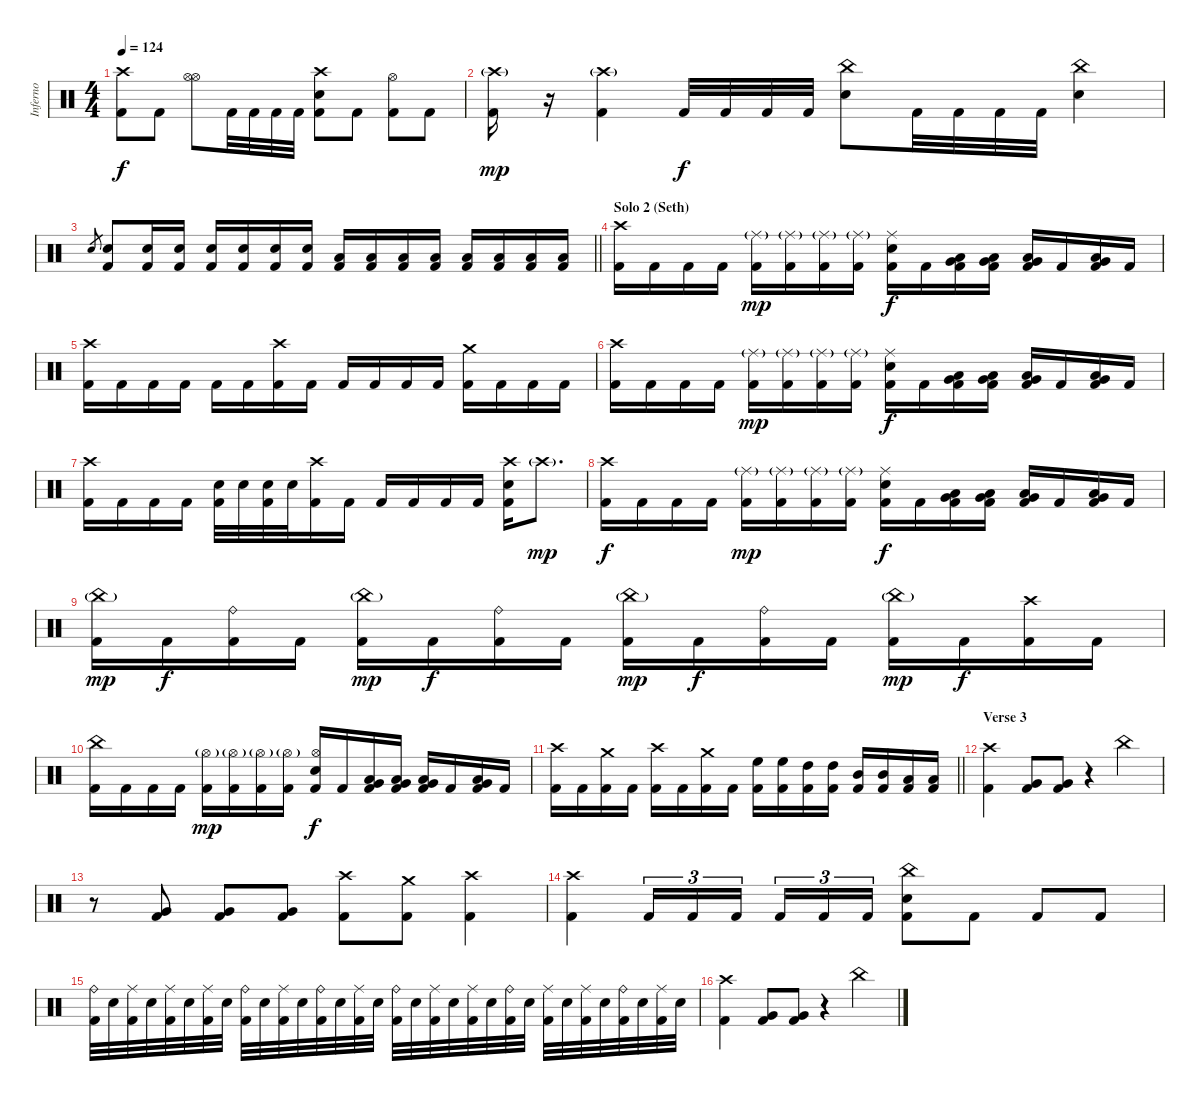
\track ("Inferno" "Inferno") {instrument percussion}
\staff {score}
\articulation defaults
\ts (4 4)
\tempo 124
\clef neutral
\ks c
("Crash high (hit)" "Kick (hit) 2").8{dy f} "Kick (hit) 2".8 ("Hi-Hat (open)" "Hi-Hat (open)").8 "Kick (hit) 2".32 "Kick (hit) 2".32 "Kick (hit) 2".32 "Kick (hit) 2".32 ("Crash high (hit)" "Electric Snare (hit)" "Kick (hit) 2").8 "Kick (hit) 2".8 ("Hi-Hat (open)" "Kick (hit) 2").8 "Kick (hit) 2".8 |
("Crash high (hit)"{g} "Kick (hit) 2").16{dy mp} r.16 ("Crash high (hit)"{g} "Kick (hit) 2").4 "Kick (hit) 2".32{dy f} "Kick (hit) 2".32 "Kick (hit) 2".32 "Kick (hit) 2".32 ("China (hit)" "Electric Snare (hit)").8 "Kick (hit) 2".32 "Kick (hit) 2".32 "Kick (hit) 2".32 "Kick (hit) 2".32 ("China (hit)" "Electric Snare (hit)").4 |
\barLineRight lightlight "Electric Snare (hit)".8{gr}
("Electric Snare (hit)" "Kick (hit) 2").8 ("Electric Snare (hit)" "Kick (hit) 2").16 ("Electric Snare (hit)" "Kick (hit) 2").16 ("Electric Snare (hit)" "Kick (hit) 2").16 ("Electric Snare (hit)" "Kick (hit) 2").16 ("Electric Snare (hit)" "Kick (hit) 2").16 ("Electric Snare (hit)" "Kick (hit) 2").16 ("Low Tom (hit)" "Kick (hit) 2").16 ("Low Tom (hit)" "Kick (hit) 2").16 ("Low Tom (hit)" "Kick (hit) 2").16 ("Low Tom (hit)" "Kick (hit) 2").16 ("Low Floor Tom (hit)" "Kick (hit) 2").16 ("Low Floor Tom (hit)" "Kick (hit) 2").16 ("Low Floor Tom (hit)" "Kick (hit) 2").16 ("Low Floor Tom (hit)" "Kick (hit) 2").16 |
\section ("" "Solo 2 (Seth)")
("Crash high (hit)" "Kick (hit) 2").16 "Kick (hit) 2".16 "Kick (hit) 2".16 "Kick (hit) 2".16 ("Ride (middle)"{g} "Kick (hit) 2").16{dy mp} ("Ride (middle)"{g} "Kick (hit) 2").16 ("Ride (middle)"{g} "Kick (hit) 2").16 ("Ride (middle)"{g} "Kick (hit) 2").16 ("Ride (middle)" "Electric Snare (hit)" "Kick (hit) 2").16{dy f} "Kick (hit) 2".16 ("Very Low Tom (hit)" "Low Tom (hit)" "Kick (hit) 2").16 ("Very Low Tom (hit)" "Low Tom (hit)" "Kick (hit) 2").16 ("Very Low Tom (hit)" "Low Tom (hit)" "Kick (hit) 2").16 "Kick (hit) 2".16 ("Very Low Tom (hit)" "Low Tom (hit)" "Kick (hit) 2").16 "Kick (hit) 2".16 |
("Crash high (hit)" "Kick (hit) 2").16 "Kick (hit) 2".16 "Kick (hit) 2".16 "Kick (hit) 2".16 "Kick (hit) 2".16 "Kick (hit) 2".16 ("Crash high (hit)" "Kick (hit) 2").16 "Kick (hit) 2".16 "Kick (hit) 2".16 "Kick (hit) 2".16 "Kick (hit) 2".16 "Kick (hit) 2".16 ("Crash medium (hit)" "Kick (hit) 2").16 "Kick (hit) 2".16 "Kick (hit) 2".16 "Kick (hit) 2".16 |
("Crash high (hit)" "Kick (hit) 2").16 "Kick (hit) 2".16 "Kick (hit) 2".16 "Kick (hit) 2".16 ("Ride (middle)"{g} "Kick (hit) 2").16{dy mp} ("Ride (middle)"{g} "Kick (hit) 2").16 ("Ride (middle)"{g} "Kick (hit) 2").16 ("Ride (middle)"{g} "Kick (hit) 2").16 ("Ride (middle)" "Electric Snare (hit)" "Kick (hit) 2").16{dy f} "Kick (hit) 2".16 ("Very Low Tom (hit)" "Low Tom (hit)" "Kick (hit) 2").16 ("Very Low Tom (hit)" "Low Tom (hit)" "Kick (hit) 2").16 ("Very Low Tom (hit)" "Low Tom (hit)" "Kick (hit) 2").16 "Kick (hit) 2".16 ("Very Low Tom (hit)" "Low Tom (hit)" "Kick (hit) 2").16 "Kick (hit) 2".16 |
("Crash high (hit)" "Kick (hit) 2").16 "Kick (hit) 2".16 "Kick (hit) 2".16 "Kick (hit) 2".16 ("Electric Snare (hit)" "Kick (hit) 2").32 "Electric Snare (hit)".32 ("Electric Snare (hit)" "Kick (hit) 2").32 "Electric Snare (hit)".32 ("Crash high (hit)" "Kick (hit) 2").16 "Kick (hit) 2".16 "Kick (hit) 2".16 "Kick (hit) 2".16 "Kick (hit) 2".16 "Kick (hit) 2".16 ("Crash high (hit)" "Electric Snare (hit)" "Kick (hit) 2").16 "Crash high (hit)"{g}.8{d dy mp} |
("Crash high (hit)" "Kick (hit) 2").16{dy f} "Kick (hit) 2".16 "Kick (hit) 2".16 "Kick (hit) 2".16 ("Ride (middle)"{g} "Kick (hit) 2").16{dy mp} ("Ride (middle)"{g} "Kick (hit) 2").16 ("Ride (middle)"{g} "Kick (hit) 2").16 ("Ride (middle)"{g} "Kick (hit) 2").16 ("Ride (middle)" "Electric Snare (hit)" "Kick (hit) 2").16{dy f} "Kick (hit) 2".16 ("Very Low Tom (hit)" "Low Tom (hit)" "Kick (hit) 2").16 ("Very Low Tom (hit)" "Low Tom (hit)" "Kick (hit) 2").16 ("Very Low Tom (hit)" "Low Tom (hit)" "Kick (hit) 2").16 "Kick (hit) 2".16 ("Very Low Tom (hit)" "Low Tom (hit)" "Kick (hit) 2").16 "Kick (hit) 2".16 |
("China (hit)"{g} "Kick (hit) 2").16{dy mp} "Kick (hit) 2".16{dy f} ("Ride (bell)" "Kick (hit) 2").16 "Kick (hit) 2".16 ("China (hit)"{g} "Kick (hit) 2").16{dy mp} "Kick (hit) 2".16{dy f} ("Ride (bell)" "Kick (hit) 2").16 "Kick (hit) 2".16 ("China (hit)"{g} "Kick (hit) 2").16{dy mp} "Kick (hit) 2".16{dy f} ("Ride (bell)" "Kick (hit) 2").16 "Kick (hit) 2".16 ("China (hit)"{g} "Kick (hit) 2").16{dy mp} "Kick (hit) 2".16{dy f} ("Crash high (hit)" "Kick (hit) 2").16 "Kick (hit) 2".16 |
("China (hit)" "Kick (hit) 2").16 "Kick (hit) 2".16 "Kick (hit) 2".16 "Kick (hit) 2".16 ("Hi-Hat (open)"{g} "Kick (hit) 2").16{dy mp} ("Hi-Hat (open)"{g} "Kick (hit) 2").16 ("Hi-Hat (open)"{g} "Kick (hit) 2").16 ("Hi-Hat (open)"{g} "Kick (hit) 2").16 ("Hi-Hat (open)" "Electric Snare (hit)" "Kick (hit) 2").16{dy f} "Kick (hit) 2".16 ("Very Low Tom (hit)" "Low Tom (hit)" "Kick (hit) 2").16 ("Very Low Tom (hit)" "Low Tom (hit)" "Kick (hit) 2").16 ("Very Low Tom (hit)" "Low Tom (hit)" "Kick (hit) 2").16 "Kick (hit) 2".16 ("Very Low Tom (hit)" "Low Tom (hit)" "Kick (hit) 2").16 "Kick (hit) 2".16 |
\barLineRight lightlight
("Crash high (hit)" "Kick (hit) 2").16 "Kick (hit) 2".16 ("Crash medium (hit)" "Kick (hit) 2").16 "Kick (hit) 2".16 ("Crash high (hit)" "Kick (hit) 2").16 "Kick (hit) 2".16 ("Crash medium (hit)" "Kick (hit) 2").16 "Kick (hit) 2".16 ("High Floor Tom (hit)" "Kick (hit) 2").16 ("High Floor Tom (hit)" "Kick (hit) 2").16 ("High Tom (hit)" "Kick (hit) 2").16 ("High Tom (hit)" "Kick (hit) 2").16 ("Mid Tom (hit)" "Kick (hit) 2").16 ("Mid Tom (hit)" "Kick (hit) 2").16 ("Low Tom (hit)" "Kick (hit) 2").16 ("Low Tom (hit)" "Kick (hit) 2").16 |
\section ("" "Verse 3")
("Crash high (hit)" "Kick (hit) 2").4 ("Very Low Tom (hit)" "Kick (hit) 2").8 ("Very Low Tom (hit)" "Kick (hit) 2").8 r.4 "China (hit)".4 |
r.8 ("Very Low Tom (hit)" "Kick (hit) 2").8 ("Very Low Tom (hit)" "Kick (hit) 2").8 ("Very Low Tom (hit)" "Kick (hit) 2").8 ("Crash high (hit)" "Kick (hit) 2").8 ("Crash medium (hit)" "Kick (hit) 2").8 ("Crash high (hit)" "Kick (hit) 2").4 |
("Crash high (hit)" "Kick (hit) 2").4 "Kick (hit) 2".16{tu (3 2)} "Kick (hit) 2".16{tu (3 2)} "Kick (hit) 2".16{tu (3 2) beam splitsecondary} "Kick (hit) 2".16{tu (3 2)} "Kick (hit) 2".16{tu (3 2)} "Kick (hit) 2".16{tu (3 2)} ("China (hit)" "Electric Snare (hit)" "Kick (hit) 2").8 "Kick (hit) 2".8 "Kick (hit) 2".8 "Kick (hit) 2".8 |
("Ride (bell)" "Kick (hit) 2").32 "Electric Snare (hit)".32 ("Ride (middle)" "Kick (hit) 2").32 "Electric Snare (hit)".32 ("Ride (middle)" "Kick (hit) 2").32 "Electric Snare (hit)".32 ("Ride (middle)" "Kick (hit) 2").32 "Electric Snare (hit)".32 ("Ride (bell)" "Kick (hit) 2").32 "Electric Snare (hit)".32 ("Ride (middle)" "Kick (hit) 2").32 "Electric Snare (hit)".32 ("Ride (bell)" "Kick (hit) 2").32 "Electric Snare (hit)".32 ("Ride (middle)" "Kick (hit) 2").32 "Electric Snare (hit)".32 ("Ride (bell)" "Kick (hit) 2").32 "Electric Snare (hit)".32 ("Ride (middle)" "Kick (hit) 2").32 "Electric Snare (hit)".32 ("Ride (middle)" "Kick (hit) 2").32 "Electric Snare (hit)".32 ("Ride (bell)" "Kick (hit) 2").32 "Electric Snare (hit)".32 ("Ride (middle)" "Kick (hit) 2").32 "Electric Snare (hit)".32 ("Ride (middle)" "Kick (hit) 2").32 "Electric Snare (hit)".32 ("Ride (bell)" "Kick (hit) 2").32 "Electric Snare (hit)".32 ("Ride (middle)" "Kick (hit) 2").32 "Electric Snare (hit)".32 |
("Crash high (hit)" "Kick (hit) 2").4 ("Very Low Tom (hit)" "Kick (hit) 2").8 ("Very Low Tom (hit)" "Kick (hit) 2").8 r.4 "China (hit)".4
